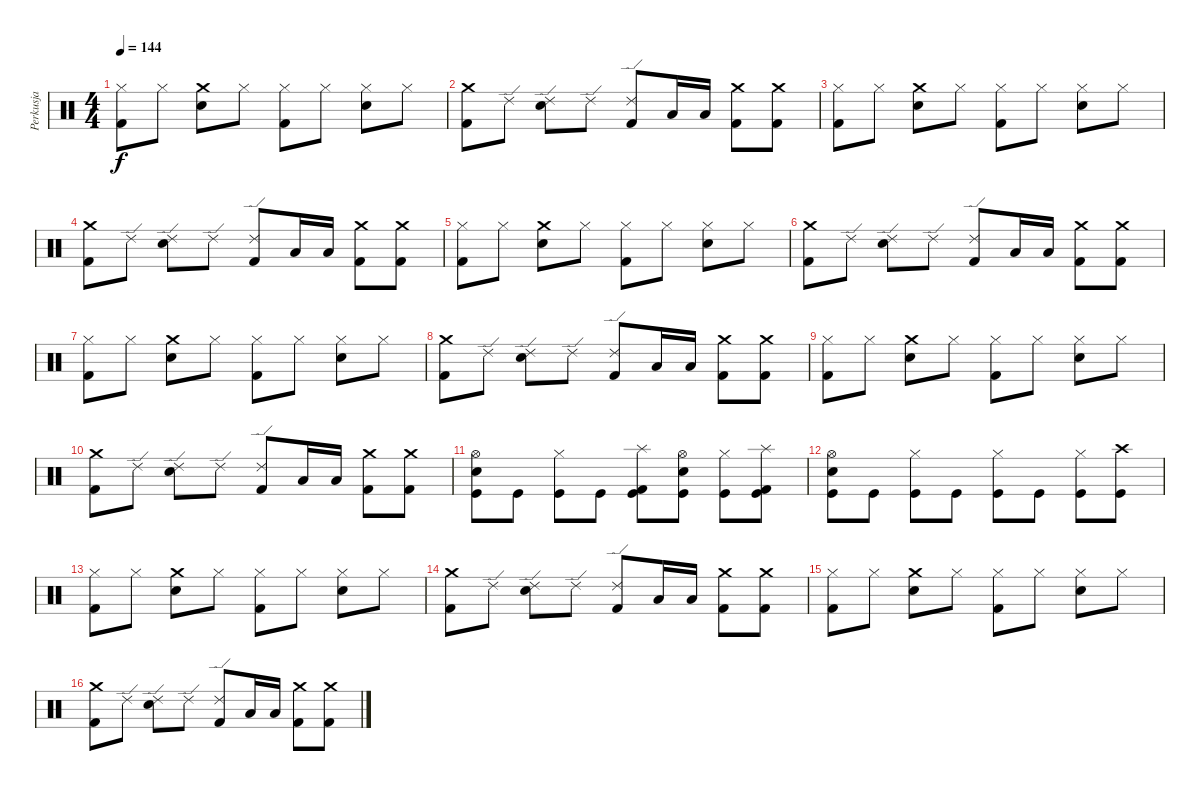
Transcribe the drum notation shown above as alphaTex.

\track ("Perkusja" "Perkusja") {instrument percussion}
\staff {score}
\articulation defaults
\ts (4 4)
\tempo 144
\clef neutral
\ks c
("Hi-Hat (closed)" "Kick (hit) 2").8{dy f} "Hi-Hat (closed)".8 ("Crash medium (hit)" "Snare (hit) 2").8 "Hi-Hat (closed)".8 ("Hi-Hat (closed)" "Kick (hit) 2").8 "Hi-Hat (closed)".8 ("Snare (hit) 2" "Hi-Hat (closed)").8 "Hi-Hat (closed)".8 |
("Crash medium (hit)" "Kick (hit) 2").8 "Ride (edge) 2".8 ("Snare (hit) 2" "Ride (edge) 2").8 "Ride (edge) 2".8 ("Ride (edge) 2" "Kick (hit) 2").8 "Low Tom (hit)".16 "Low Tom (hit)".16 ("Crash medium (hit)" "Kick (hit) 2").8 ("Crash medium (hit)" "Kick (hit) 2").8 |
("Hi-Hat (closed)" "Kick (hit) 2").8 "Hi-Hat (closed)".8 ("Crash medium (hit)" "Snare (hit) 2").8 "Hi-Hat (closed)".8 ("Hi-Hat (closed)" "Kick (hit) 2").8 "Hi-Hat (closed)".8 ("Snare (hit) 2" "Hi-Hat (closed)").8 "Hi-Hat (closed)".8 |
("Crash medium (hit)" "Kick (hit) 2").8 "Ride (edge) 2".8 ("Snare (hit) 2" "Ride (edge) 2").8 "Ride (edge) 2".8 ("Ride (edge) 2" "Kick (hit) 2").8 "Low Tom (hit)".16 "Low Tom (hit)".16 ("Crash medium (hit)" "Kick (hit) 2").8 ("Crash medium (hit)" "Kick (hit) 2").8 |
("Hi-Hat (closed)" "Kick (hit) 2").8 "Hi-Hat (closed)".8 ("Crash medium (hit)" "Snare (hit) 2").8 "Hi-Hat (closed)".8 ("Hi-Hat (closed)" "Kick (hit) 2").8 "Hi-Hat (closed)".8 ("Snare (hit) 2" "Hi-Hat (closed)").8 "Hi-Hat (closed)".8 |
("Crash medium (hit)" "Kick (hit) 2").8 "Ride (edge) 2".8 ("Snare (hit) 2" "Ride (edge) 2").8 "Ride (edge) 2".8 ("Ride (edge) 2" "Kick (hit) 2").8 "Low Tom (hit)".16 "Low Tom (hit)".16 ("Crash medium (hit)" "Kick (hit) 2").8 ("Crash medium (hit)" "Kick (hit) 2").8 |
("Hi-Hat (closed)" "Kick (hit) 2").8 "Hi-Hat (closed)".8 ("Crash medium (hit)" "Snare (hit) 2").8 "Hi-Hat (closed)".8 ("Hi-Hat (closed)" "Kick (hit) 2").8 "Hi-Hat (closed)".8 ("Snare (hit) 2" "Hi-Hat (closed)").8 "Hi-Hat (closed)".8 |
("Crash medium (hit)" "Kick (hit) 2").8 "Ride (edge) 2".8 ("Snare (hit) 2" "Ride (edge) 2").8 "Ride (edge) 2".8 ("Ride (edge) 2" "Kick (hit) 2").8 "Low Tom (hit)".16 "Low Tom (hit)".16 ("Crash medium (hit)" "Kick (hit) 2").8 ("Crash medium (hit)" "Kick (hit) 2").8 |
("Hi-Hat (closed)" "Kick (hit) 2").8 "Hi-Hat (closed)".8 ("Crash medium (hit)" "Snare (hit) 2").8 "Hi-Hat (closed)".8 ("Hi-Hat (closed)" "Kick (hit) 2").8 "Hi-Hat (closed)".8 ("Snare (hit) 2" "Hi-Hat (closed)").8 "Hi-Hat (closed)".8 |
("Crash medium (hit)" "Kick (hit) 2").8 "Ride (edge) 2".8 ("Snare (hit) 2" "Ride (edge) 2").8 "Ride (edge) 2".8 ("Ride (edge) 2" "Kick (hit) 2").8 "Low Tom (hit)".16 "Low Tom (hit)".16 ("Crash medium (hit)" "Kick (hit) 2").8 ("Crash medium (hit)" "Kick (hit) 2").8 |
("Kick (hit)" "Snare (hit) 2" "Hi-Hat (open)").8 "Kick (hit)".8 ("Kick (hit)" "Hi-Hat (closed)").8 "Kick (hit)".8 ("Kick (hit)" "Splash (hit)" "Kick (hit) 2").8 ("Kick (hit)" "Hi-Hat (open)" "Snare (hit) 2").8 ("Kick (hit)" "Hi-Hat (closed)").8 ("Kick (hit)" "Splash (hit)" "Kick (hit) 2").8 |
("Kick (hit)" "Snare (hit) 2" "Hi-Hat (open)").8 "Kick (hit)".8 ("Kick (hit)" "Hi-Hat (closed)").8 "Kick (hit)".8 ("Kick (hit)" "Hi-Hat (closed)").8 "Kick (hit)".8 ("Kick (hit)" "Hi-Hat (closed)").8 ("Kick (hit)" "Crash high (hit)").8 |
("Hi-Hat (closed)" "Kick (hit) 2").8 "Hi-Hat (closed)".8 ("Crash medium (hit)" "Snare (hit) 2").8 "Hi-Hat (closed)".8 ("Hi-Hat (closed)" "Kick (hit) 2").8 "Hi-Hat (closed)".8 ("Snare (hit) 2" "Hi-Hat (closed)").8 "Hi-Hat (closed)".8 |
("Crash medium (hit)" "Kick (hit) 2").8 "Ride (edge) 2".8 ("Snare (hit) 2" "Ride (edge) 2").8 "Ride (edge) 2".8 ("Ride (edge) 2" "Kick (hit) 2").8 "Low Tom (hit)".16 "Low Tom (hit)".16 ("Crash medium (hit)" "Kick (hit) 2").8 ("Crash medium (hit)" "Kick (hit) 2").8 |
("Hi-Hat (closed)" "Kick (hit) 2").8 "Hi-Hat (closed)".8 ("Crash medium (hit)" "Snare (hit) 2").8 "Hi-Hat (closed)".8 ("Hi-Hat (closed)" "Kick (hit) 2").8 "Hi-Hat (closed)".8 ("Snare (hit) 2" "Hi-Hat (closed)").8 "Hi-Hat (closed)".8 |
("Crash medium (hit)" "Kick (hit) 2").8 "Ride (edge) 2".8 ("Snare (hit) 2" "Ride (edge) 2").8 "Ride (edge) 2".8 ("Ride (edge) 2" "Kick (hit) 2").8 "Low Tom (hit)".16 "Low Tom (hit)".16 ("Crash medium (hit)" "Kick (hit) 2").8 ("Crash medium (hit)" "Kick (hit) 2").8
